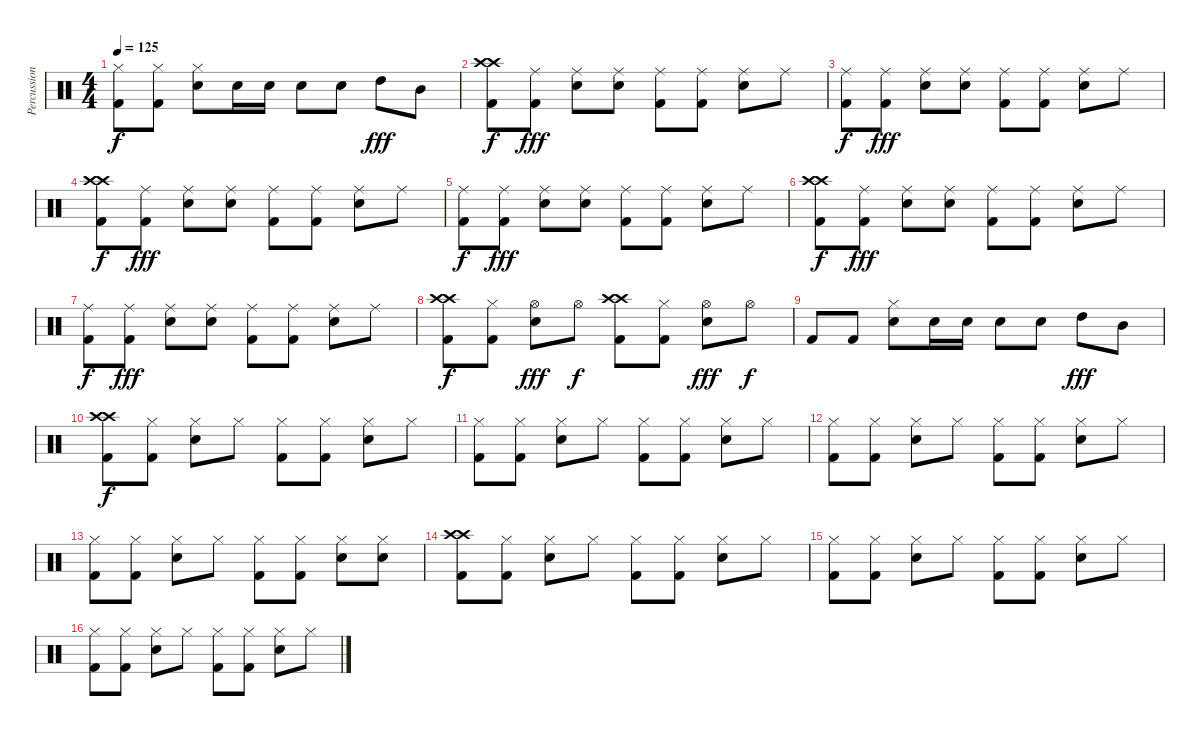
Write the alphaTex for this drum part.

\track ("Percussion" "Percussion") {instrument percussion}
\staff {score}
\articulation defaults
\ts (4 4)
\tempo 125
\clef neutral
\ks c
("Hi-Hat (closed)" "Kick (hit) 2").8{dy f} ("Hi-Hat (closed)" "Kick (hit) 2").8 ("Hi-Hat (closed)" "Electric Snare (hit)").8 "Electric Snare (hit)".16 "Electric Snare (hit)".16 "Electric Snare (hit)".8 "Electric Snare (hit)".8 "High Tom (hit)".8{dy fff} "Mid Tom (hit)".8 |
("Crash high (hit)" "Kick (hit) 2" "Crash high (hit)").8{dy f} ("Ride (middle)" "Kick (hit) 2").8{dy fff} ("Ride (middle)" "Electric Snare (hit)").8 ("Ride (middle)" "Electric Snare (hit)").8 ("Ride (middle)" "Kick (hit) 2").8 ("Ride (middle)" "Kick (hit) 2").8 ("Ride (middle)" "Electric Snare (hit)").8 "Ride (middle)".8 |
("Ride (middle)" "Kick (hit) 2").8{dy f} ("Ride (middle)" "Kick (hit) 2").8{dy fff} ("Ride (middle)" "Electric Snare (hit)").8 ("Ride (middle)" "Electric Snare (hit)").8 ("Ride (middle)" "Kick (hit) 2").8 ("Ride (middle)" "Kick (hit) 2").8 ("Ride (middle)" "Electric Snare (hit)").8 "Ride (middle)".8 |
("Crash high (hit)" "Kick (hit) 2" "Crash high (hit)").8{dy f} ("Ride (middle)" "Kick (hit) 2").8{dy fff} ("Ride (middle)" "Electric Snare (hit)").8 ("Ride (middle)" "Electric Snare (hit)").8 ("Ride (middle)" "Kick (hit) 2").8 ("Ride (middle)" "Kick (hit) 2").8 ("Ride (middle)" "Electric Snare (hit)").8 "Ride (middle)".8 |
("Ride (middle)" "Kick (hit) 2").8{dy f} ("Ride (middle)" "Kick (hit) 2").8{dy fff} ("Ride (middle)" "Electric Snare (hit)").8 ("Ride (middle)" "Electric Snare (hit)").8 ("Ride (middle)" "Kick (hit) 2").8 ("Ride (middle)" "Kick (hit) 2").8 ("Ride (middle)" "Electric Snare (hit)").8 "Ride (middle)".8 |
("Crash high (hit)" "Kick (hit) 2" "Crash high (hit)").8{dy f} ("Ride (middle)" "Kick (hit) 2").8{dy fff} ("Ride (middle)" "Electric Snare (hit)").8 ("Ride (middle)" "Electric Snare (hit)").8 ("Ride (middle)" "Kick (hit) 2").8 ("Ride (middle)" "Kick (hit) 2").8 ("Ride (middle)" "Electric Snare (hit)").8 "Ride (middle)".8 |
("Ride (middle)" "Kick (hit) 2").8{dy f} ("Ride (middle)" "Kick (hit) 2").8{dy fff} ("Ride (middle)" "Electric Snare (hit)").8 ("Ride (middle)" "Electric Snare (hit)").8 ("Ride (middle)" "Kick (hit) 2").8 ("Ride (middle)" "Kick (hit) 2").8 ("Ride (middle)" "Electric Snare (hit)").8 "Ride (middle)".8 |
("Crash high (hit)" "Kick (hit) 2" "Crash high (hit)").8{dy f} ("Hi-Hat (closed)" "Kick (hit) 2").8 ("Hi-Hat (open)" "Electric Snare (hit)").8{dy fff} "Hi-Hat (open)".8{dy f} ("Crash high (hit)" "Kick (hit) 2" "Crash high (hit)").8 ("Hi-Hat (closed)" "Kick (hit) 2").8 ("Hi-Hat (open)" "Electric Snare (hit)").8{dy fff} "Hi-Hat (open)".8{dy f} |
"Kick (hit) 2".8 "Kick (hit) 2".8 ("Hi-Hat (closed)" "Electric Snare (hit)").8 "Electric Snare (hit)".16 "Electric Snare (hit)".16 "Electric Snare (hit)".8 "Electric Snare (hit)".8 "High Tom (hit)".8{dy fff} "Mid Tom (hit)".8 |
("Crash high (hit)" "Kick (hit) 2" "Crash high (hit)").8{dy f} ("Hi-Hat (closed)" "Kick (hit) 2").8 ("Hi-Hat (closed)" "Electric Snare (hit)").8 "Hi-Hat (closed)".8 ("Hi-Hat (closed)" "Kick (hit) 2").8 ("Hi-Hat (closed)" "Kick (hit) 2").8 ("Hi-Hat (closed)" "Electric Snare (hit)").8 "Hi-Hat (closed)".8 |
("Hi-Hat (closed)" "Kick (hit) 2").8 ("Hi-Hat (closed)" "Kick (hit) 2").8 ("Hi-Hat (closed)" "Electric Snare (hit)").8 "Hi-Hat (closed)".8 ("Hi-Hat (closed)" "Kick (hit) 2").8 ("Hi-Hat (closed)" "Kick (hit) 2").8 ("Hi-Hat (closed)" "Electric Snare (hit)").8 "Hi-Hat (closed)".8 |
("Hi-Hat (closed)" "Kick (hit) 2").8 ("Hi-Hat (closed)" "Kick (hit) 2").8 ("Hi-Hat (closed)" "Electric Snare (hit)").8 "Hi-Hat (closed)".8 ("Hi-Hat (closed)" "Kick (hit) 2").8 ("Hi-Hat (closed)" "Kick (hit) 2").8 ("Hi-Hat (closed)" "Electric Snare (hit)").8 "Hi-Hat (closed)".8 |
("Hi-Hat (closed)" "Kick (hit) 2").8 ("Hi-Hat (closed)" "Kick (hit) 2").8 ("Hi-Hat (closed)" "Electric Snare (hit)").8 "Hi-Hat (closed)".8 ("Hi-Hat (closed)" "Kick (hit) 2").8 ("Hi-Hat (closed)" "Kick (hit) 2").8 ("Hi-Hat (closed)" "Electric Snare (hit)").8 ("Hi-Hat (closed)" "Electric Snare (hit)").8 |
("Crash high (hit)" "Kick (hit) 2" "Crash high (hit)").8 ("Hi-Hat (closed)" "Kick (hit) 2").8 ("Hi-Hat (closed)" "Electric Snare (hit)").8 "Hi-Hat (closed)".8 ("Hi-Hat (closed)" "Kick (hit) 2").8 ("Hi-Hat (closed)" "Kick (hit) 2").8 ("Hi-Hat (closed)" "Electric Snare (hit)").8 "Hi-Hat (closed)".8 |
("Hi-Hat (closed)" "Kick (hit) 2").8 ("Hi-Hat (closed)" "Kick (hit) 2").8 ("Hi-Hat (closed)" "Electric Snare (hit)").8 "Hi-Hat (closed)".8 ("Hi-Hat (closed)" "Kick (hit) 2").8 ("Hi-Hat (closed)" "Kick (hit) 2").8 ("Hi-Hat (closed)" "Electric Snare (hit)").8 "Hi-Hat (closed)".8 |
("Hi-Hat (closed)" "Kick (hit) 2").8 ("Hi-Hat (closed)" "Kick (hit) 2").8 ("Hi-Hat (closed)" "Electric Snare (hit)").8 "Hi-Hat (closed)".8 ("Hi-Hat (closed)" "Kick (hit) 2").8 ("Hi-Hat (closed)" "Kick (hit) 2").8 ("Hi-Hat (closed)" "Electric Snare (hit)").8 "Hi-Hat (closed)".8
